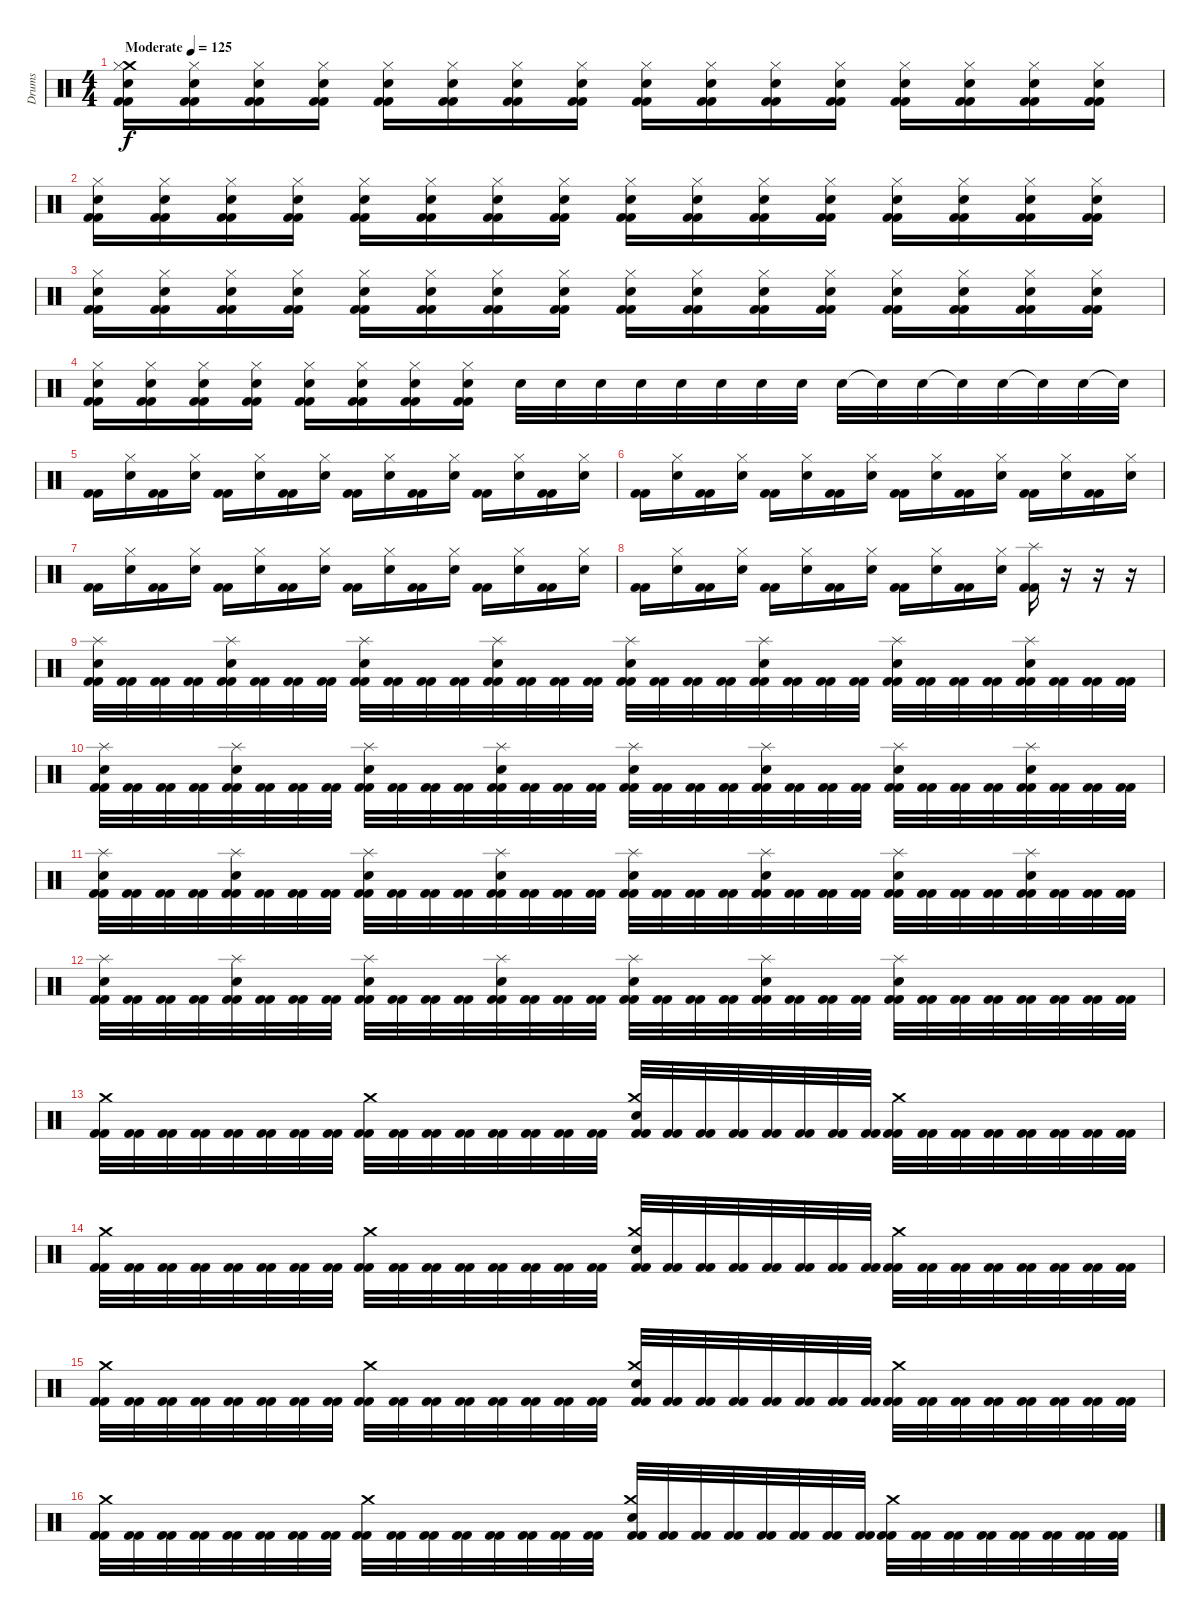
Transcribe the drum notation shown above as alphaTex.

\track ("Drums" "Drums") {instrument percussion}
\staff {score}
\articulation defaults
\ts (4 4)
\tempo (125 "Moderate")
\clef neutral
\ks c
("Kick (hit) 2" "Crash medium (hit)" "Snare (hit) 2" "Hi-Hat (closed)" "Kick (hit) 2").16{dy f} ("Kick (hit) 2" "Snare (hit) 2" "Hi-Hat (closed)" "Kick (hit) 2").16 ("Kick (hit) 2" "Snare (hit) 2" "Hi-Hat (closed)" "Kick (hit) 2").16 ("Kick (hit) 2" "Snare (hit) 2" "Hi-Hat (closed)" "Kick (hit) 2").16 ("Kick (hit) 2" "Snare (hit) 2" "Hi-Hat (closed)" "Kick (hit) 2").16 ("Kick (hit) 2" "Snare (hit) 2" "Hi-Hat (closed)" "Kick (hit) 2").16 ("Kick (hit) 2" "Snare (hit) 2" "Hi-Hat (closed)" "Kick (hit) 2").16 ("Kick (hit) 2" "Snare (hit) 2" "Hi-Hat (closed)" "Kick (hit) 2").16 ("Kick (hit) 2" "Snare (hit) 2" "Hi-Hat (closed)" "Kick (hit) 2").16 ("Kick (hit) 2" "Snare (hit) 2" "Hi-Hat (closed)" "Kick (hit) 2").16 ("Kick (hit) 2" "Snare (hit) 2" "Hi-Hat (closed)" "Kick (hit) 2").16 ("Kick (hit) 2" "Snare (hit) 2" "Hi-Hat (closed)" "Kick (hit) 2").16 ("Kick (hit) 2" "Snare (hit) 2" "Hi-Hat (closed)" "Kick (hit) 2").16 ("Kick (hit) 2" "Snare (hit) 2" "Hi-Hat (closed)" "Kick (hit) 2").16 ("Kick (hit) 2" "Snare (hit) 2" "Hi-Hat (closed)" "Kick (hit) 2").16 ("Kick (hit) 2" "Snare (hit) 2" "Hi-Hat (closed)" "Kick (hit) 2").16 |
("Kick (hit) 2" "Snare (hit) 2" "Hi-Hat (closed)" "Kick (hit) 2").16 ("Kick (hit) 2" "Snare (hit) 2" "Hi-Hat (closed)" "Kick (hit) 2").16 ("Kick (hit) 2" "Snare (hit) 2" "Hi-Hat (closed)" "Kick (hit) 2").16 ("Kick (hit) 2" "Snare (hit) 2" "Hi-Hat (closed)" "Kick (hit) 2").16 ("Kick (hit) 2" "Snare (hit) 2" "Hi-Hat (closed)" "Kick (hit) 2").16 ("Kick (hit) 2" "Snare (hit) 2" "Hi-Hat (closed)" "Kick (hit) 2").16 ("Kick (hit) 2" "Snare (hit) 2" "Hi-Hat (closed)" "Kick (hit) 2").16 ("Kick (hit) 2" "Snare (hit) 2" "Hi-Hat (closed)" "Kick (hit) 2").16 ("Kick (hit) 2" "Snare (hit) 2" "Hi-Hat (closed)" "Kick (hit) 2").16 ("Kick (hit) 2" "Snare (hit) 2" "Hi-Hat (closed)" "Kick (hit) 2").16 ("Kick (hit) 2" "Snare (hit) 2" "Hi-Hat (closed)" "Kick (hit) 2").16 ("Kick (hit) 2" "Snare (hit) 2" "Hi-Hat (closed)" "Kick (hit) 2").16 ("Kick (hit) 2" "Snare (hit) 2" "Hi-Hat (closed)" "Kick (hit) 2").16 ("Kick (hit) 2" "Snare (hit) 2" "Hi-Hat (closed)" "Kick (hit) 2").16 ("Kick (hit) 2" "Snare (hit) 2" "Hi-Hat (closed)" "Kick (hit) 2").16 ("Kick (hit) 2" "Snare (hit) 2" "Hi-Hat (closed)" "Kick (hit) 2").16 |
("Kick (hit) 2" "Snare (hit) 2" "Hi-Hat (closed)" "Kick (hit) 2").16 ("Kick (hit) 2" "Snare (hit) 2" "Hi-Hat (closed)" "Kick (hit) 2").16 ("Kick (hit) 2" "Snare (hit) 2" "Hi-Hat (closed)" "Kick (hit) 2").16 ("Kick (hit) 2" "Snare (hit) 2" "Hi-Hat (closed)" "Kick (hit) 2").16 ("Kick (hit) 2" "Snare (hit) 2" "Hi-Hat (closed)" "Kick (hit) 2").16 ("Kick (hit) 2" "Snare (hit) 2" "Hi-Hat (closed)" "Kick (hit) 2").16 ("Kick (hit) 2" "Snare (hit) 2" "Hi-Hat (closed)" "Kick (hit) 2").16 ("Kick (hit) 2" "Snare (hit) 2" "Hi-Hat (closed)" "Kick (hit) 2").16 ("Kick (hit) 2" "Snare (hit) 2" "Hi-Hat (closed)" "Kick (hit) 2").16 ("Kick (hit) 2" "Snare (hit) 2" "Hi-Hat (closed)" "Kick (hit) 2").16 ("Kick (hit) 2" "Snare (hit) 2" "Hi-Hat (closed)" "Kick (hit) 2").16 ("Kick (hit) 2" "Snare (hit) 2" "Hi-Hat (closed)" "Kick (hit) 2").16 ("Kick (hit) 2" "Snare (hit) 2" "Hi-Hat (closed)" "Kick (hit) 2").16 ("Kick (hit) 2" "Snare (hit) 2" "Hi-Hat (closed)" "Kick (hit) 2").16 ("Kick (hit) 2" "Snare (hit) 2" "Hi-Hat (closed)" "Kick (hit) 2").16 ("Kick (hit) 2" "Snare (hit) 2" "Hi-Hat (closed)" "Kick (hit) 2").16 |
("Kick (hit) 2" "Snare (hit) 2" "Hi-Hat (closed)" "Kick (hit) 2").16 ("Kick (hit) 2" "Snare (hit) 2" "Hi-Hat (closed)" "Kick (hit) 2").16 ("Kick (hit) 2" "Snare (hit) 2" "Hi-Hat (closed)" "Kick (hit) 2").16 ("Kick (hit) 2" "Snare (hit) 2" "Hi-Hat (closed)" "Kick (hit) 2").16 ("Kick (hit) 2" "Snare (hit) 2" "Hi-Hat (closed)" "Kick (hit) 2").16 ("Kick (hit) 2" "Snare (hit) 2" "Hi-Hat (closed)" "Kick (hit) 2").16 ("Kick (hit) 2" "Snare (hit) 2" "Hi-Hat (closed)" "Kick (hit) 2").16 ("Kick (hit) 2" "Snare (hit) 2" "Hi-Hat (closed)" "Kick (hit) 2").16 "Snare (hit) 2".32 "Snare (hit) 2".32 "Snare (hit) 2".32 "Snare (hit) 2".32 "Snare (hit) 2".32 "Snare (hit) 2".32 "Snare (hit) 2".32 "Snare (hit) 2".32 "Snare (hit) 2".32 "Snare (hit)"{t}.32 "Snare (hit) 2".32 "Snare (hit)"{t}.32 "Snare (hit) 2".32 "Snare (hit)"{t}.32 "Snare (hit) 2".32 "Snare (hit)"{t}.32 |
("Kick (hit) 2" "Kick (hit) 2").16 ("Hi-Hat (closed)" "Snare (hit) 2").16 ("Kick (hit) 2" "Kick (hit) 2").16 ("Hi-Hat (closed)" "Snare (hit) 2").16 ("Kick (hit) 2" "Kick (hit) 2").16 ("Hi-Hat (closed)" "Snare (hit) 2").16 ("Kick (hit) 2" "Kick (hit) 2").16 ("Hi-Hat (closed)" "Snare (hit) 2").16 ("Kick (hit) 2" "Kick (hit) 2").16 ("Hi-Hat (closed)" "Snare (hit) 2").16 ("Kick (hit) 2" "Kick (hit) 2").16 ("Hi-Hat (closed)" "Snare (hit) 2").16 ("Kick (hit) 2" "Kick (hit) 2").16 ("Hi-Hat (closed)" "Snare (hit) 2").16 ("Kick (hit) 2" "Kick (hit) 2").16 ("Hi-Hat (closed)" "Snare (hit) 2").16 |
("Kick (hit) 2" "Kick (hit) 2").16 ("Hi-Hat (closed)" "Snare (hit) 2").16 ("Kick (hit) 2" "Kick (hit) 2").16 ("Hi-Hat (closed)" "Snare (hit) 2").16 ("Kick (hit) 2" "Kick (hit) 2").16 ("Hi-Hat (closed)" "Snare (hit) 2").16 ("Kick (hit) 2" "Kick (hit) 2").16 ("Hi-Hat (closed)" "Snare (hit) 2").16 ("Kick (hit) 2" "Kick (hit) 2").16 ("Hi-Hat (closed)" "Snare (hit) 2").16 ("Kick (hit) 2" "Kick (hit) 2").16 ("Hi-Hat (closed)" "Snare (hit) 2").16 ("Kick (hit) 2" "Kick (hit) 2").16 ("Hi-Hat (closed)" "Snare (hit) 2").16 ("Kick (hit) 2" "Kick (hit) 2").16 ("Hi-Hat (closed)" "Snare (hit) 2").16 |
("Kick (hit) 2" "Kick (hit) 2").16 ("Hi-Hat (closed)" "Snare (hit) 2").16 ("Kick (hit) 2" "Kick (hit) 2").16 ("Hi-Hat (closed)" "Snare (hit) 2").16 ("Kick (hit) 2" "Kick (hit) 2").16 ("Hi-Hat (closed)" "Snare (hit) 2").16 ("Kick (hit) 2" "Kick (hit) 2").16 ("Hi-Hat (closed)" "Snare (hit) 2").16 ("Kick (hit) 2" "Kick (hit) 2").16 ("Hi-Hat (closed)" "Snare (hit) 2").16 ("Kick (hit) 2" "Kick (hit) 2").16 ("Hi-Hat (closed)" "Snare (hit) 2").16 ("Kick (hit) 2" "Kick (hit) 2").16 ("Hi-Hat (closed)" "Snare (hit) 2").16 ("Kick (hit) 2" "Kick (hit) 2").16 ("Hi-Hat (closed)" "Snare (hit) 2").16 |
("Kick (hit) 2" "Kick (hit) 2").16 ("Hi-Hat (closed)" "Snare (hit) 2").16 ("Kick (hit) 2" "Kick (hit) 2").16 ("Hi-Hat (closed)" "Snare (hit) 2").16 ("Kick (hit) 2" "Kick (hit) 2").16 ("Hi-Hat (closed)" "Snare (hit) 2").16 ("Kick (hit) 2" "Kick (hit) 2").16 ("Hi-Hat (closed)" "Snare (hit) 2").16 ("Kick (hit) 2" "Kick (hit) 2").16 ("Hi-Hat (closed)" "Snare (hit) 2").16 ("Kick (hit) 2" "Kick (hit) 2").16 ("Hi-Hat (closed)" "Snare (hit) 2").16 ("Kick (hit) 2" "Splash (hit)" "Kick (hit) 2").16 r.16 r.16 r.16 |
("Kick (hit) 2" "Splash (hit)" "Snare (hit) 2" "Kick (hit) 2").32 ("Kick (hit) 2" "Kick (hit) 2").32 ("Kick (hit) 2" "Kick (hit) 2").32 ("Kick (hit) 2" "Kick (hit) 2").32 ("Kick (hit) 2" "Splash (hit)" "Snare (hit) 2" "Kick (hit) 2").32 ("Kick (hit) 2" "Kick (hit) 2").32 ("Kick (hit) 2" "Kick (hit) 2").32 ("Kick (hit) 2" "Kick (hit) 2").32 ("Kick (hit) 2" "Splash (hit)" "Snare (hit) 2" "Kick (hit) 2").32 ("Kick (hit) 2" "Kick (hit) 2").32 ("Kick (hit) 2" "Kick (hit) 2").32 ("Kick (hit) 2" "Kick (hit) 2").32 ("Kick (hit) 2" "Splash (hit)" "Snare (hit) 2" "Kick (hit) 2").32 ("Kick (hit) 2" "Kick (hit) 2").32 ("Kick (hit) 2" "Kick (hit) 2").32 ("Kick (hit) 2" "Kick (hit) 2").32 ("Kick (hit) 2" "Splash (hit)" "Snare (hit) 2" "Kick (hit) 2").32 ("Kick (hit) 2" "Kick (hit) 2").32 ("Kick (hit) 2" "Kick (hit) 2").32 ("Kick (hit) 2" "Kick (hit) 2").32 ("Kick (hit) 2" "Splash (hit)" "Snare (hit) 2" "Kick (hit) 2").32 ("Kick (hit) 2" "Kick (hit) 2").32 ("Kick (hit) 2" "Kick (hit) 2").32 ("Kick (hit) 2" "Kick (hit) 2").32 ("Kick (hit) 2" "Splash (hit)" "Snare (hit) 2" "Kick (hit) 2").32 ("Kick (hit) 2" "Kick (hit) 2").32 ("Kick (hit) 2" "Kick (hit) 2").32 ("Kick (hit) 2" "Kick (hit) 2").32 ("Kick (hit) 2" "Splash (hit)" "Snare (hit) 2" "Kick (hit) 2").32 ("Kick (hit) 2" "Kick (hit) 2").32 ("Kick (hit) 2" "Kick (hit) 2").32 ("Kick (hit) 2" "Kick (hit) 2").32 |
("Kick (hit) 2" "Splash (hit)" "Snare (hit) 2" "Kick (hit) 2").32 ("Kick (hit) 2" "Kick (hit) 2").32 ("Kick (hit) 2" "Kick (hit) 2").32 ("Kick (hit) 2" "Kick (hit) 2").32 ("Kick (hit) 2" "Splash (hit)" "Snare (hit) 2" "Kick (hit) 2").32 ("Kick (hit) 2" "Kick (hit) 2").32 ("Kick (hit) 2" "Kick (hit) 2").32 ("Kick (hit) 2" "Kick (hit) 2").32 ("Kick (hit) 2" "Splash (hit)" "Snare (hit) 2" "Kick (hit) 2").32 ("Kick (hit) 2" "Kick (hit) 2").32 ("Kick (hit) 2" "Kick (hit) 2").32 ("Kick (hit) 2" "Kick (hit) 2").32 ("Kick (hit) 2" "Splash (hit)" "Snare (hit) 2" "Kick (hit) 2").32 ("Kick (hit) 2" "Kick (hit) 2").32 ("Kick (hit) 2" "Kick (hit) 2").32 ("Kick (hit) 2" "Kick (hit) 2").32 ("Kick (hit) 2" "Splash (hit)" "Snare (hit) 2" "Kick (hit) 2").32 ("Kick (hit) 2" "Kick (hit) 2").32 ("Kick (hit) 2" "Kick (hit) 2").32 ("Kick (hit) 2" "Kick (hit) 2").32 ("Kick (hit) 2" "Splash (hit)" "Snare (hit) 2" "Kick (hit) 2").32 ("Kick (hit) 2" "Kick (hit) 2").32 ("Kick (hit) 2" "Kick (hit) 2").32 ("Kick (hit) 2" "Kick (hit) 2").32 ("Kick (hit) 2" "Splash (hit)" "Snare (hit) 2" "Kick (hit) 2").32 ("Kick (hit) 2" "Kick (hit) 2").32 ("Kick (hit) 2" "Kick (hit) 2").32 ("Kick (hit) 2" "Kick (hit) 2").32 ("Kick (hit) 2" "Splash (hit)" "Snare (hit) 2" "Kick (hit) 2").32 ("Kick (hit) 2" "Kick (hit) 2").32 ("Kick (hit) 2" "Kick (hit) 2").32 ("Kick (hit) 2" "Kick (hit) 2").32 |
("Kick (hit) 2" "Splash (hit)" "Snare (hit) 2" "Kick (hit) 2").32 ("Kick (hit) 2" "Kick (hit) 2").32 ("Kick (hit) 2" "Kick (hit) 2").32 ("Kick (hit) 2" "Kick (hit) 2").32 ("Kick (hit) 2" "Splash (hit)" "Snare (hit) 2" "Kick (hit) 2").32 ("Kick (hit) 2" "Kick (hit) 2").32 ("Kick (hit) 2" "Kick (hit) 2").32 ("Kick (hit) 2" "Kick (hit) 2").32 ("Kick (hit) 2" "Splash (hit)" "Snare (hit) 2" "Kick (hit) 2").32 ("Kick (hit) 2" "Kick (hit) 2").32 ("Kick (hit) 2" "Kick (hit) 2").32 ("Kick (hit) 2" "Kick (hit) 2").32 ("Kick (hit) 2" "Splash (hit)" "Snare (hit) 2" "Kick (hit) 2").32 ("Kick (hit) 2" "Kick (hit) 2").32 ("Kick (hit) 2" "Kick (hit) 2").32 ("Kick (hit) 2" "Kick (hit) 2").32 ("Kick (hit) 2" "Splash (hit)" "Snare (hit) 2" "Kick (hit) 2").32 ("Kick (hit) 2" "Kick (hit) 2").32 ("Kick (hit) 2" "Kick (hit) 2").32 ("Kick (hit) 2" "Kick (hit) 2").32 ("Kick (hit) 2" "Splash (hit)" "Snare (hit) 2" "Kick (hit) 2").32 ("Kick (hit) 2" "Kick (hit) 2").32 ("Kick (hit) 2" "Kick (hit) 2").32 ("Kick (hit) 2" "Kick (hit) 2").32 ("Kick (hit) 2" "Splash (hit)" "Snare (hit) 2" "Kick (hit) 2").32 ("Kick (hit) 2" "Kick (hit) 2").32 ("Kick (hit) 2" "Kick (hit) 2").32 ("Kick (hit) 2" "Kick (hit) 2").32 ("Kick (hit) 2" "Splash (hit)" "Snare (hit) 2" "Kick (hit) 2").32 ("Kick (hit) 2" "Kick (hit) 2").32 ("Kick (hit) 2" "Kick (hit) 2").32 ("Kick (hit) 2" "Kick (hit) 2").32 |
("Kick (hit) 2" "Splash (hit)" "Snare (hit) 2" "Kick (hit) 2").32 ("Kick (hit) 2" "Kick (hit) 2").32 ("Kick (hit) 2" "Kick (hit) 2").32 ("Kick (hit) 2" "Kick (hit) 2").32 ("Kick (hit) 2" "Splash (hit)" "Snare (hit) 2" "Kick (hit) 2").32 ("Kick (hit) 2" "Kick (hit) 2").32 ("Kick (hit) 2" "Kick (hit) 2").32 ("Kick (hit) 2" "Kick (hit) 2").32 ("Kick (hit) 2" "Splash (hit)" "Snare (hit) 2" "Kick (hit) 2").32 ("Kick (hit) 2" "Kick (hit) 2").32 ("Kick (hit) 2" "Kick (hit) 2").32 ("Kick (hit) 2" "Kick (hit) 2").32 ("Kick (hit) 2" "Splash (hit)" "Snare (hit) 2" "Kick (hit) 2").32 ("Kick (hit) 2" "Kick (hit) 2").32 ("Kick (hit) 2" "Kick (hit) 2").32 ("Kick (hit) 2" "Kick (hit) 2").32 ("Kick (hit) 2" "Splash (hit)" "Snare (hit) 2" "Kick (hit) 2").32 ("Kick (hit) 2" "Kick (hit) 2").32 ("Kick (hit) 2" "Kick (hit) 2").32 ("Kick (hit) 2" "Kick (hit) 2").32 ("Kick (hit) 2" "Splash (hit)" "Snare (hit) 2" "Kick (hit) 2").32 ("Kick (hit) 2" "Kick (hit) 2").32 ("Kick (hit) 2" "Kick (hit) 2").32 ("Kick (hit) 2" "Kick (hit) 2").32 ("Kick (hit) 2" "Splash (hit)" "Snare (hit) 2" "Kick (hit) 2").32 ("Kick (hit) 2" "Kick (hit) 2").32 ("Kick (hit) 2" "Kick (hit) 2").32 ("Kick (hit) 2" "Kick (hit) 2").32 ("Kick (hit) 2" "Kick (hit) 2").32 ("Kick (hit) 2" "Kick (hit) 2").32 ("Kick (hit) 2" "Kick (hit) 2").32 ("Kick (hit) 2" "Kick (hit) 2").32 |
("Kick (hit) 2" "Crash medium (hit)" "Kick (hit) 2").32 ("Kick (hit) 2" "Kick (hit) 2").32 ("Kick (hit) 2" "Kick (hit) 2").32 ("Kick (hit) 2" "Kick (hit) 2").32 ("Kick (hit) 2" "Kick (hit) 2").32 ("Kick (hit) 2" "Kick (hit) 2").32 ("Kick (hit) 2" "Kick (hit) 2").32 ("Kick (hit) 2" "Kick (hit) 2").32 ("Kick (hit) 2" "Crash medium (hit)" "Kick (hit) 2").32 ("Kick (hit) 2" "Kick (hit) 2").32 ("Kick (hit) 2" "Kick (hit) 2").32 ("Kick (hit) 2" "Kick (hit) 2").32 ("Kick (hit) 2" "Kick (hit) 2").32 ("Kick (hit) 2" "Kick (hit) 2").32 ("Kick (hit) 2" "Kick (hit) 2").32 ("Kick (hit) 2" "Kick (hit) 2").32 ("Kick (hit) 2" "Crash medium (hit)" "Snare (hit) 2" "Kick (hit) 2").32 ("Kick (hit) 2" "Kick (hit) 2").32 ("Kick (hit) 2" "Kick (hit) 2").32 ("Kick (hit) 2" "Kick (hit) 2").32 ("Kick (hit) 2" "Kick (hit) 2").32 ("Kick (hit) 2" "Kick (hit) 2").32 ("Kick (hit) 2" "Kick (hit) 2").32 ("Kick (hit) 2" "Kick (hit) 2").32 ("Kick (hit) 2" "Crash medium (hit)" "Kick (hit) 2").32 ("Kick (hit) 2" "Kick (hit) 2").32 ("Kick (hit) 2" "Kick (hit) 2").32 ("Kick (hit) 2" "Kick (hit) 2").32 ("Kick (hit) 2" "Kick (hit) 2").32 ("Kick (hit) 2" "Kick (hit) 2").32 ("Kick (hit) 2" "Kick (hit) 2").32 ("Kick (hit) 2" "Kick (hit) 2").32 |
("Kick (hit) 2" "Crash medium (hit)" "Kick (hit) 2").32 ("Kick (hit) 2" "Kick (hit) 2").32 ("Kick (hit) 2" "Kick (hit) 2").32 ("Kick (hit) 2" "Kick (hit) 2").32 ("Kick (hit) 2" "Kick (hit) 2").32 ("Kick (hit) 2" "Kick (hit) 2").32 ("Kick (hit) 2" "Kick (hit) 2").32 ("Kick (hit) 2" "Kick (hit) 2").32 ("Kick (hit) 2" "Crash medium (hit)" "Kick (hit) 2").32 ("Kick (hit) 2" "Kick (hit) 2").32 ("Kick (hit) 2" "Kick (hit) 2").32 ("Kick (hit) 2" "Kick (hit) 2").32 ("Kick (hit) 2" "Kick (hit) 2").32 ("Kick (hit) 2" "Kick (hit) 2").32 ("Kick (hit) 2" "Kick (hit) 2").32 ("Kick (hit) 2" "Kick (hit) 2").32 ("Kick (hit) 2" "Crash medium (hit)" "Snare (hit) 2" "Kick (hit) 2").32 ("Kick (hit) 2" "Kick (hit) 2").32 ("Kick (hit) 2" "Kick (hit) 2").32 ("Kick (hit) 2" "Kick (hit) 2").32 ("Kick (hit) 2" "Kick (hit) 2").32 ("Kick (hit) 2" "Kick (hit) 2").32 ("Kick (hit) 2" "Kick (hit) 2").32 ("Kick (hit) 2" "Kick (hit) 2").32 ("Kick (hit) 2" "Crash medium (hit)" "Kick (hit) 2").32 ("Kick (hit) 2" "Kick (hit) 2").32 ("Kick (hit) 2" "Kick (hit) 2").32 ("Kick (hit) 2" "Kick (hit) 2").32 ("Kick (hit) 2" "Kick (hit) 2").32 ("Kick (hit) 2" "Kick (hit) 2").32 ("Kick (hit) 2" "Kick (hit) 2").32 ("Kick (hit) 2" "Kick (hit) 2").32 |
("Kick (hit) 2" "Crash medium (hit)" "Kick (hit) 2").32 ("Kick (hit) 2" "Kick (hit) 2").32 ("Kick (hit) 2" "Kick (hit) 2").32 ("Kick (hit) 2" "Kick (hit) 2").32 ("Kick (hit) 2" "Kick (hit) 2").32 ("Kick (hit) 2" "Kick (hit) 2").32 ("Kick (hit) 2" "Kick (hit) 2").32 ("Kick (hit) 2" "Kick (hit) 2").32 ("Kick (hit) 2" "Crash medium (hit)" "Kick (hit) 2").32 ("Kick (hit) 2" "Kick (hit) 2").32 ("Kick (hit) 2" "Kick (hit) 2").32 ("Kick (hit) 2" "Kick (hit) 2").32 ("Kick (hit) 2" "Kick (hit) 2").32 ("Kick (hit) 2" "Kick (hit) 2").32 ("Kick (hit) 2" "Kick (hit) 2").32 ("Kick (hit) 2" "Kick (hit) 2").32 ("Kick (hit) 2" "Crash medium (hit)" "Snare (hit) 2" "Kick (hit) 2").32 ("Kick (hit) 2" "Kick (hit) 2").32 ("Kick (hit) 2" "Kick (hit) 2").32 ("Kick (hit) 2" "Kick (hit) 2").32 ("Kick (hit) 2" "Kick (hit) 2").32 ("Kick (hit) 2" "Kick (hit) 2").32 ("Kick (hit) 2" "Kick (hit) 2").32 ("Kick (hit) 2" "Kick (hit) 2").32 ("Kick (hit) 2" "Crash medium (hit)" "Kick (hit) 2").32 ("Kick (hit) 2" "Kick (hit) 2").32 ("Kick (hit) 2" "Kick (hit) 2").32 ("Kick (hit) 2" "Kick (hit) 2").32 ("Kick (hit) 2" "Kick (hit) 2").32 ("Kick (hit) 2" "Kick (hit) 2").32 ("Kick (hit) 2" "Kick (hit) 2").32 ("Kick (hit) 2" "Kick (hit) 2").32 |
("Kick (hit) 2" "Crash medium (hit)" "Kick (hit) 2").32 ("Kick (hit) 2" "Kick (hit) 2").32 ("Kick (hit) 2" "Kick (hit) 2").32 ("Kick (hit) 2" "Kick (hit) 2").32 ("Kick (hit) 2" "Kick (hit) 2").32 ("Kick (hit) 2" "Kick (hit) 2").32 ("Kick (hit) 2" "Kick (hit) 2").32 ("Kick (hit) 2" "Kick (hit) 2").32 ("Kick (hit) 2" "Crash medium (hit)" "Kick (hit) 2").32 ("Kick (hit) 2" "Kick (hit) 2").32 ("Kick (hit) 2" "Kick (hit) 2").32 ("Kick (hit) 2" "Kick (hit) 2").32 ("Kick (hit) 2" "Kick (hit) 2").32 ("Kick (hit) 2" "Kick (hit) 2").32 ("Kick (hit) 2" "Kick (hit) 2").32 ("Kick (hit) 2" "Kick (hit) 2").32 ("Kick (hit) 2" "Crash medium (hit)" "Snare (hit) 2" "Kick (hit) 2").32 ("Kick (hit) 2" "Kick (hit) 2").32 ("Kick (hit) 2" "Kick (hit) 2").32 ("Kick (hit) 2" "Kick (hit) 2").32 ("Kick (hit) 2" "Kick (hit) 2").32 ("Kick (hit) 2" "Kick (hit) 2").32 ("Kick (hit) 2" "Kick (hit) 2").32 ("Kick (hit) 2" "Kick (hit) 2").32 ("Kick (hit) 2" "Crash medium (hit)" "Kick (hit) 2").32 ("Kick (hit) 2" "Kick (hit) 2").32 ("Kick (hit) 2" "Kick (hit) 2").32 ("Kick (hit) 2" "Kick (hit) 2").32 ("Kick (hit) 2" "Kick (hit) 2").32 ("Kick (hit) 2" "Kick (hit) 2").32 ("Kick (hit) 2" "Kick (hit) 2").32 ("Kick (hit) 2" "Kick (hit) 2").32
